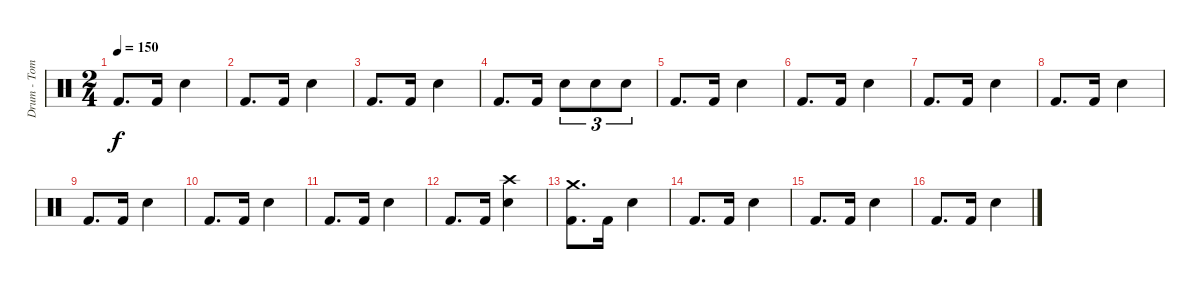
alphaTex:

\track ("Drum - Tom" "Drum - Tom") {instrument percussion}
\staff {score}
\articulation defaults
\ts (2 4)
\tempo 150
\clef neutral
\ks c "Kick (hit) 2".8{d dy f} "Kick (hit) 2".16 "Electric Snare (hit)".4
|
"Kick (hit) 2".8{d} "Kick (hit) 2".16 "Electric Snare (hit)".4 |
"Kick (hit) 2".8{d} "Kick (hit) 2".16 "Electric Snare (hit)".4 |
"Kick (hit) 2".8{d} "Kick (hit) 2".16 "Electric Snare (hit)".8{tu (3 2)} "Electric Snare (hit)".8{tu (3 2)} "Electric Snare (hit)".8{tu (3 2)} |
"Kick (hit) 2".8{d} "Kick (hit) 2".16 "Electric Snare (hit)".4 |
"Kick (hit) 2".8{d} "Kick (hit) 2".16 "Electric Snare (hit)".4 |
"Kick (hit) 2".8{d} "Kick (hit) 2".16 "Electric Snare (hit)".4 |
"Kick (hit) 2".8{d} "Kick (hit) 2".16 "Electric Snare (hit)".4 |
"Kick (hit) 2".8{d} "Kick (hit) 2".16 "Electric Snare (hit)".4 |
"Kick (hit) 2".8{d} "Kick (hit) 2".16 "Electric Snare (hit)".4 |
"Kick (hit) 2".8{d} "Kick (hit) 2".16 "Electric Snare (hit)".4 |
"Kick (hit) 2".8{d} "Kick (hit) 2".16 ("Crash high (hit)" "Electric Snare (hit)").4 |
("Crash medium (hit)" "Kick (hit) 2").8{d} "Kick (hit) 2".16 "Electric Snare (hit)".4 |
"Kick (hit) 2".8{d} "Kick (hit) 2".16 "Electric Snare (hit)".4 |
"Kick (hit) 2".8{d} "Kick (hit) 2".16 "Electric Snare (hit)".4 |
"Kick (hit) 2".8{d} "Kick (hit) 2".16 "Electric Snare (hit)".4
